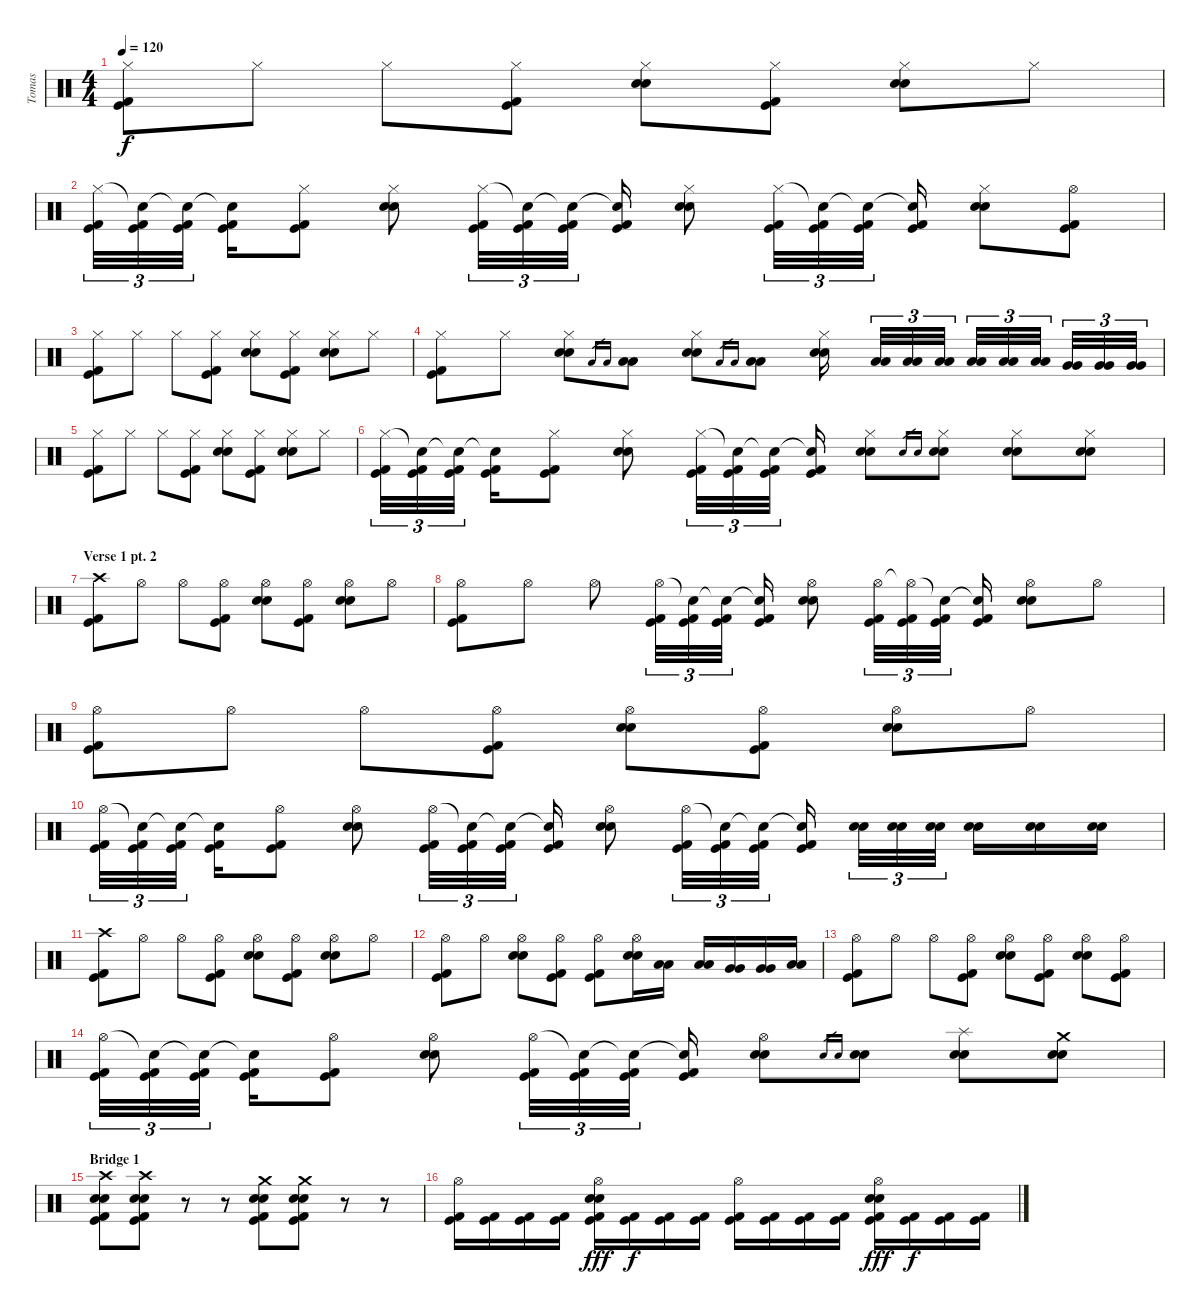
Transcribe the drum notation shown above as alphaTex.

\track ("Tomas" "Tomas") {instrument percussion}
\staff {score}
\articulation defaults
\ts (4 4)
\tempo 120
\clef neutral
\ks c
("Hi-Hat (closed)" "Kick (hit)" "Kick (hit) 2").8{dy f} "Hi-Hat (closed)".8 "Hi-Hat (closed)".8 ("Hi-Hat (closed)" "Kick (hit)" "Kick (hit) 2").8 ("Hi-Hat (closed)" "Electric Snare (hit)" "Electric Snare (hit)").8 ("Hi-Hat (closed)" "Kick (hit)" "Kick (hit) 2").8 ("Hi-Hat (closed)" "Electric Snare (hit)" "Electric Snare (hit)").8 "Hi-Hat (closed)".8 |
("Hi-Hat (closed)" "Kick (hit)" "Kick (hit) 2").32{tu (3 2)} ("Snare (hit)"{t} "Kick (hit)" "Kick (hit) 2").32{tu (3 2)} ("Snare (hit)"{t} "Kick (hit)" "Kick (hit) 2").32{tu (3 2)} ("Snare (hit)"{t} "Kick (hit)" "Kick (hit) 2").16 ("Hi-Hat (closed)" "Kick (hit)" "Kick (hit) 2").8 ("Hi-Hat (closed)" "Electric Snare (hit)" "Electric Snare (hit)").8 ("Hi-Hat (closed)" "Kick (hit)" "Kick (hit) 2").32{tu (3 2)} ("Snare (hit)"{t} "Kick (hit)" "Kick (hit) 2").32{tu (3 2)} ("Snare (hit)"{t} "Kick (hit)" "Kick (hit) 2").32{tu (3 2)} ("Snare (hit)"{t} "Kick (hit)" "Kick (hit) 2").16 ("Hi-Hat (closed)" "Electric Snare (hit)" "Electric Snare (hit)").8 ("Hi-Hat (closed)" "Kick (hit)" "Kick (hit) 2").32{tu (3 2)} ("Snare (hit)"{t} "Kick (hit)" "Kick (hit) 2").32{tu (3 2)} ("Snare (hit)"{t} "Kick (hit)" "Kick (hit) 2").32{tu (3 2)} ("Snare (hit)"{t} "Kick (hit)" "Kick (hit) 2").16 ("Hi-Hat (closed)" "Electric Snare (hit)" "Electric Snare (hit)").8 ("Hi-Hat (open)" "Kick (hit)" "Kick (hit) 2").8 |
("Hi-Hat (closed)" "Kick (hit)" "Kick (hit) 2").8 "Hi-Hat (closed)".8 "Hi-Hat (closed)".8 ("Hi-Hat (closed)" "Kick (hit)" "Kick (hit) 2").8 ("Hi-Hat (closed)" "Electric Snare (hit)" "Electric Snare (hit)").8 ("Hi-Hat (closed)" "Kick (hit)" "Kick (hit) 2").8 ("Hi-Hat (closed)" "Electric Snare (hit)" "Electric Snare (hit)").8 "Hi-Hat (closed)".8 |
("Hi-Hat (closed)" "Kick (hit)" "Kick (hit) 2").8 "Hi-Hat (closed)".8 ("Hi-Hat (closed)" "Electric Snare (hit)" "Electric Snare (hit)").8 "Low Tom (hit)".16{gr} "Low Tom (hit)".16{gr} ("Low Tom (hit)" "Low Tom (hit)").8 ("Hi-Hat (closed)" "Electric Snare (hit)" "Electric Snare (hit)").8 "Low Floor Tom (hit)".16{gr} "Low Floor Tom (hit)".16{gr} ("Low Floor Tom (hit)" "Low Floor Tom (hit)").8 ("Hi-Hat (closed)" "Electric Snare (hit)" "Electric Snare (hit)").16 ("Low Tom (hit)" "Low Tom (hit)").32{tu (3 2)} ("Low Tom (hit)" "Low Tom (hit)").32{tu (3 2)} ("Low Tom (hit)" "Low Tom (hit)").32{tu (3 2)} ("Low Tom (hit)" "Low Tom (hit)").32{tu (3 2)} ("Low Tom (hit)" "Low Tom (hit)").32{tu (3 2)} ("Low Tom (hit)" "Low Tom (hit)").32{tu (3 2)} ("Very Low Tom (hit)" "Very Low Tom (hit)").32{tu (3 2)} ("Very Low Tom (hit)" "Very Low Tom (hit)").32{tu (3 2)} ("Very Low Tom (hit)" "Very Low Tom (hit)").32{tu (3 2)} |
("Hi-Hat (closed)" "Kick (hit)" "Kick (hit) 2").8 "Hi-Hat (closed)".8 "Hi-Hat (closed)".8 ("Hi-Hat (closed)" "Kick (hit)" "Kick (hit) 2").8 ("Hi-Hat (closed)" "Electric Snare (hit)" "Electric Snare (hit)").8 ("Hi-Hat (closed)" "Kick (hit)" "Kick (hit) 2").8 ("Hi-Hat (closed)" "Electric Snare (hit)" "Electric Snare (hit)").8 "Hi-Hat (closed)".8 |
("Hi-Hat (closed)" "Kick (hit)" "Kick (hit) 2").32{tu (3 2)} ("Snare (hit)"{t} "Kick (hit)" "Kick (hit) 2").32{tu (3 2)} ("Snare (hit)"{t} "Kick (hit)" "Kick (hit) 2").32{tu (3 2)} ("Snare (hit)"{t} "Kick (hit)" "Kick (hit) 2").16 ("Hi-Hat (closed)" "Kick (hit)" "Kick (hit) 2").8 ("Hi-Hat (closed)" "Electric Snare (hit)" "Electric Snare (hit)").8 ("Hi-Hat (closed)" "Kick (hit)" "Kick (hit) 2").32{tu (3 2)} ("Snare (hit)"{t} "Kick (hit)" "Kick (hit) 2").32{tu (3 2)} ("Snare (hit)"{t} "Kick (hit)" "Kick (hit) 2").32{tu (3 2)} ("Snare (hit)"{t} "Kick (hit)" "Kick (hit) 2").16 ("Hi-Hat (closed)" "Electric Snare (hit)" "Electric Snare (hit)").8 "Electric Snare (hit)".16{gr} "Electric Snare (hit)".16{gr} ("Hi-Hat (closed)" "Electric Snare (hit)" "Electric Snare (hit)").8 ("Hi-Hat (closed)" "Electric Snare (hit)" "Electric Snare (hit)").8 ("Hi-Hat (closed)" "Electric Snare (hit)" "Electric Snare (hit)").8 |
\section ("" "Verse 1 pt. 2")
("Crash high (hit)" "Kick (hit)" "Kick (hit) 2").8 "Hi-Hat (open)".8 "Hi-Hat (open)".8 ("Hi-Hat (open)" "Kick (hit)" "Kick (hit) 2").8 ("Hi-Hat (open)" "Electric Snare (hit)" "Electric Snare (hit)").8 ("Hi-Hat (open)" "Kick (hit)" "Kick (hit) 2").8 ("Hi-Hat (open)" "Electric Snare (hit)" "Electric Snare (hit)").8 "Hi-Hat (open)".8 |
("Hi-Hat (open)" "Kick (hit)" "Kick (hit) 2").8 "Hi-Hat (open)".8 "Hi-Hat (open)".8 ("Hi-Hat (open)" "Kick (hit)" "Kick (hit) 2").32{tu (3 2)} ("Snare (hit)"{t} "Kick (hit)" "Kick (hit) 2").32{tu (3 2)} ("Snare (hit)"{t} "Kick (hit)" "Kick (hit) 2").32{tu (3 2)} ("Snare (hit)"{t} "Kick (hit)" "Kick (hit) 2").16 ("Hi-Hat (open)" "Electric Snare (hit)" "Electric Snare (hit)").8 ("Hi-Hat (open)" "Kick (hit)" "Kick (hit) 2").32{tu (3 2)} ("Hi-Hat (open)"{t} "Kick (hit)" "Kick (hit) 2").32{tu (3 2)} ("Snare (hit)"{t} "Kick (hit)" "Kick (hit) 2").32{tu (3 2)} ("Snare (hit)"{t} "Kick (hit)" "Kick (hit) 2").16 ("Hi-Hat (open)" "Electric Snare (hit)" "Electric Snare (hit)").8 "Hi-Hat (open)".8 |
("Hi-Hat (open)" "Kick (hit)" "Kick (hit) 2").8 "Hi-Hat (open)".8 "Hi-Hat (open)".8 ("Hi-Hat (open)" "Kick (hit)" "Kick (hit) 2").8 ("Hi-Hat (open)" "Electric Snare (hit)" "Electric Snare (hit)").8 ("Hi-Hat (open)" "Kick (hit)" "Kick (hit) 2").8 ("Hi-Hat (open)" "Electric Snare (hit)" "Electric Snare (hit)").8 "Hi-Hat (open)".8 |
("Hi-Hat (open)" "Kick (hit)" "Kick (hit) 2").32{tu (3 2)} ("Snare (hit)"{t} "Kick (hit)" "Kick (hit) 2").32{tu (3 2)} ("Snare (hit)"{t} "Kick (hit)" "Kick (hit) 2").32{tu (3 2)} ("Snare (hit)"{t} "Kick (hit)" "Kick (hit) 2").16 ("Hi-Hat (open)" "Kick (hit)" "Kick (hit) 2").8 ("Hi-Hat (open)" "Electric Snare (hit)" "Electric Snare (hit)").8 ("Hi-Hat (open)" "Kick (hit)" "Kick (hit) 2").32{tu (3 2)} ("Snare (hit)"{t} "Kick (hit)" "Kick (hit) 2").32{tu (3 2)} ("Snare (hit)"{t} "Kick (hit)" "Kick (hit) 2").32{tu (3 2)} ("Snare (hit)"{t} "Kick (hit)" "Kick (hit) 2").16 ("Hi-Hat (open)" "Electric Snare (hit)" "Electric Snare (hit)").8 ("Hi-Hat (open)" "Kick (hit)" "Kick (hit) 2").32{tu (3 2)} ("Snare (hit)"{t} "Kick (hit)" "Kick (hit) 2").32{tu (3 2)} ("Snare (hit)"{t} "Kick (hit)" "Kick (hit) 2").32{tu (3 2)} ("Snare (hit)"{t} "Kick (hit)" "Kick (hit) 2").16 ("Electric Snare (hit)" "Electric Snare (hit)").32{tu (3 2)} ("Electric Snare (hit)" "Electric Snare (hit)").32{tu (3 2)} ("Electric Snare (hit)" "Electric Snare (hit)").32{tu (3 2)} ("Electric Snare (hit)" "Electric Snare (hit)").16 ("Electric Snare (hit)" "Electric Snare (hit)").16 ("Electric Snare (hit)" "Electric Snare (hit)").16 |
("Crash high (hit)" "Kick (hit)" "Kick (hit) 2").8 "Hi-Hat (open)".8 "Hi-Hat (open)".8 ("Hi-Hat (open)" "Kick (hit)" "Kick (hit) 2").8 ("Hi-Hat (open)" "Electric Snare (hit)" "Electric Snare (hit)").8 ("Hi-Hat (open)" "Kick (hit)" "Kick (hit) 2").8 ("Hi-Hat (open)" "Electric Snare (hit)" "Electric Snare (hit)").8 "Hi-Hat (open)".8 |
("Hi-Hat (open)" "Kick (hit)" "Kick (hit) 2").8 "Hi-Hat (open)".8 ("Hi-Hat (open)" "Electric Snare (hit)" "Electric Snare (hit)").8 ("Hi-Hat (open)" "Kick (hit)" "Kick (hit) 2").8 ("Hi-Hat (open)" "Kick (hit)" "Kick (hit) 2").8 ("Hi-Hat (open)" "Electric Snare (hit)" "Electric Snare (hit)").16 ("Low Tom (hit)" "Low Tom (hit)").16 ("Low Tom (hit)" "Low Tom (hit)").16 ("Very Low Tom (hit)" "Very Low Tom (hit)").16 ("Very Low Tom (hit)" "Very Low Tom (hit)").16 ("Low Floor Tom (hit)" "Low Floor Tom (hit)").16 |
("Hi-Hat (open)" "Kick (hit)" "Kick (hit) 2").8 "Hi-Hat (open)".8 "Hi-Hat (open)".8 ("Hi-Hat (open)" "Kick (hit)" "Kick (hit) 2").8 ("Hi-Hat (open)" "Electric Snare (hit)" "Electric Snare (hit)").8 ("Hi-Hat (open)" "Kick (hit)" "Kick (hit) 2").8 ("Hi-Hat (open)" "Electric Snare (hit)" "Electric Snare (hit)").8 ("Hi-Hat (open)" "Kick (hit)" "Kick (hit) 2").8 |
("Hi-Hat (open)" "Kick (hit)" "Kick (hit) 2").32{tu (3 2)} ("Snare (hit)"{t} "Kick (hit)" "Kick (hit) 2").32{tu (3 2)} ("Snare (hit)"{t} "Kick (hit)" "Kick (hit) 2").32{tu (3 2)} ("Snare (hit)"{t} "Kick (hit)" "Kick (hit) 2").16 ("Hi-Hat (open)" "Kick (hit)" "Kick (hit) 2").8 ("Hi-Hat (open)" "Electric Snare (hit)" "Electric Snare (hit)").8 ("Hi-Hat (open)" "Kick (hit)" "Kick (hit) 2").32{tu (3 2)} ("Snare (hit)"{t} "Kick (hit)" "Kick (hit) 2").32{tu (3 2)} ("Snare (hit)"{t} "Kick (hit)" "Kick (hit) 2").32{tu (3 2)} ("Snare (hit)"{t} "Kick (hit)" "Kick (hit) 2").16 ("Hi-Hat (open)" "Electric Snare (hit)" "Electric Snare (hit)").8 "Electric Snare (hit)".16{gr} "Electric Snare (hit)".16{gr} ("Electric Snare (hit)" "Electric Snare (hit)").8 ("Splash (hit)" "Electric Snare (hit)" "Electric Snare (hit)").8 ("Crash medium (hit)" "Electric Snare (hit)" "Electric Snare (hit)").8 |
\section ("" "Bridge 1")
("Crash high (hit)" "Kick (hit)" "Kick (hit) 2" "Electric Snare (hit)" "Electric Snare (hit)").8 ("Crash high (hit)" "Kick (hit)" "Kick (hit) 2" "Electric Snare (hit)" "Electric Snare (hit)").8 r.8 r.8 ("Crash medium (hit)" "Kick (hit)" "Kick (hit) 2" "Electric Snare (hit)" "Electric Snare (hit)").8 ("Crash medium (hit)" "Kick (hit)" "Kick (hit) 2" "Electric Snare (hit)" "Electric Snare (hit)").8 r.8 r.8 |
("Hi-Hat (open)" "Kick (hit)" "Kick (hit) 2").16 ("Kick (hit)" "Kick (hit) 2").16 ("Kick (hit)" "Kick (hit) 2").16 ("Kick (hit)" "Kick (hit) 2").16 ("Hi-Hat (open)" "Electric Snare (hit)" "Electric Snare (hit)" "Kick (hit)" "Kick (hit) 2").16{dy fff} ("Kick (hit)" "Kick (hit) 2").16{dy f} ("Kick (hit)" "Kick (hit) 2").16 ("Kick (hit)" "Kick (hit) 2").16 ("Hi-Hat (open)" "Kick (hit)" "Kick (hit) 2").16 ("Kick (hit)" "Kick (hit) 2").16 ("Kick (hit)" "Kick (hit) 2").16 ("Kick (hit)" "Kick (hit) 2").16 ("Hi-Hat (open)" "Electric Snare (hit)" "Electric Snare (hit)" "Kick (hit)" "Kick (hit) 2").16{dy fff} ("Kick (hit)" "Kick (hit) 2").16{dy f} ("Kick (hit)" "Kick (hit) 2").16 ("Kick (hit)" "Kick (hit) 2").16
